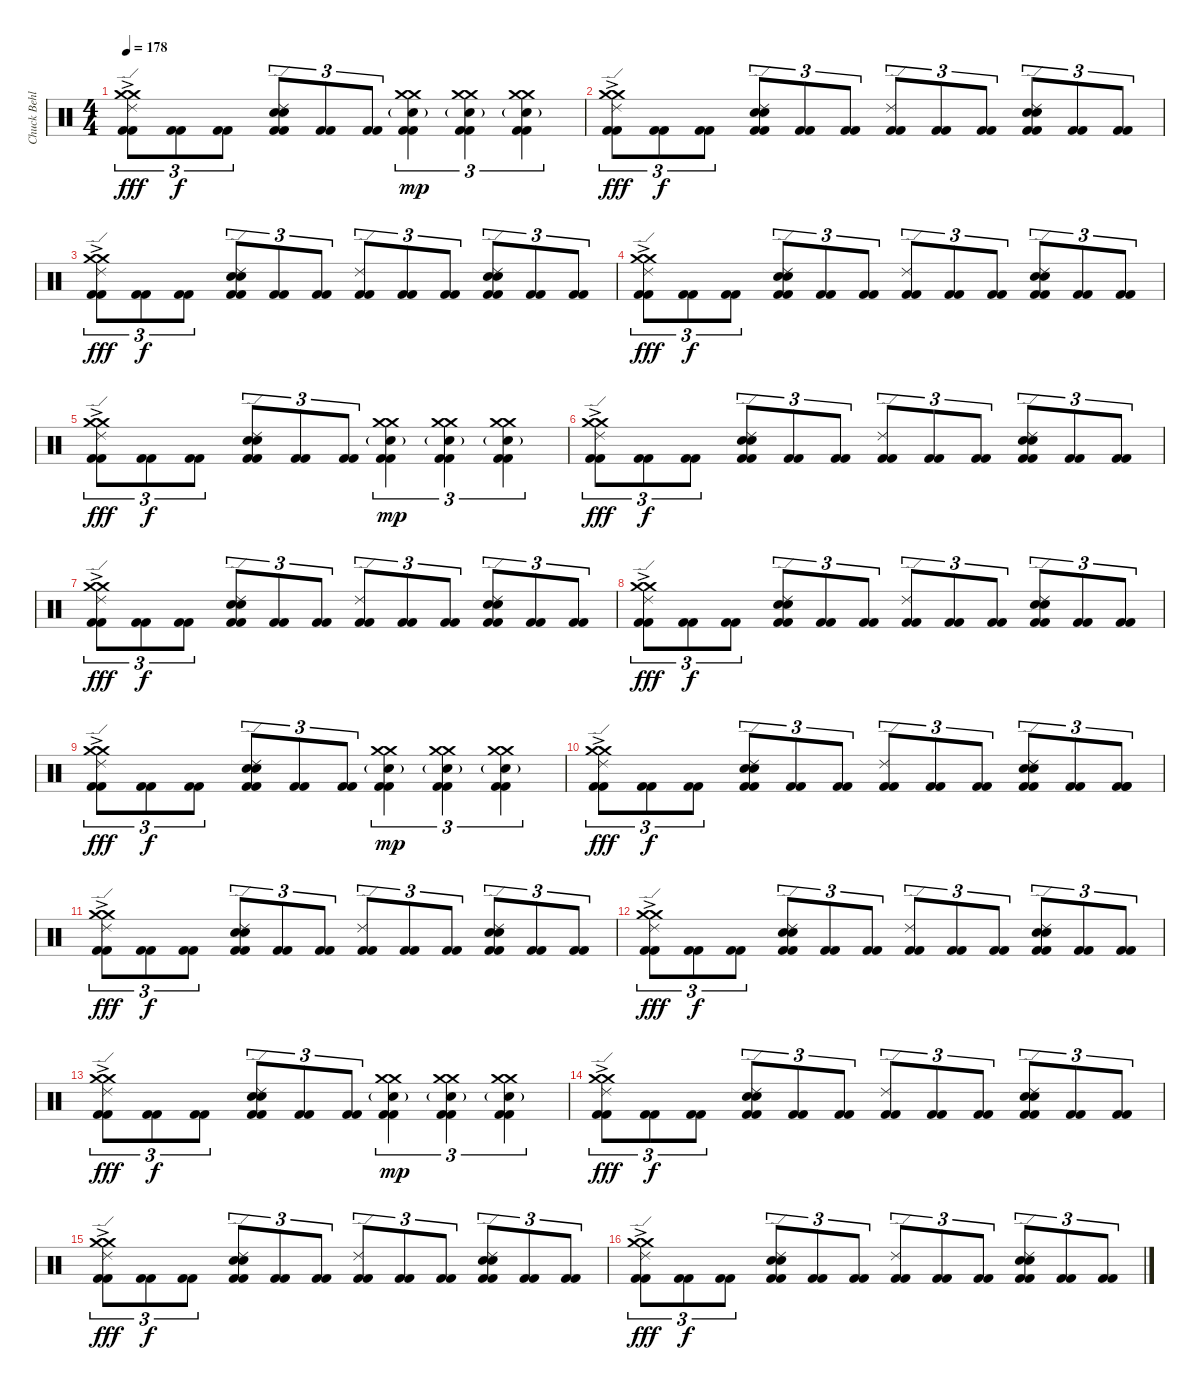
\track ("Chuck Behler" "Chuck Behl") {instrument percussion}
\staff {score}
\articulation defaults
\ts (4 4)
\tempo 178
\clef neutral
\ks c
("Crash medium (hit)"{ac} "Crash medium (hit)"{ac} "Ride (edge) 2" "Kick (hit) 2" "Kick (hit) 2").8{tu (3 2) dy fff} ("Kick (hit) 2" "Kick (hit) 2").8{tu (3 2) dy f} ("Kick (hit) 2" "Kick (hit) 2").8{tu (3 2)} ("Ride (edge) 2" "Snare (hit) 2" "Electric Snare (hit)" "Kick (hit) 2" "Kick (hit) 2").8{tu (3 2)} ("Kick (hit) 2" "Kick (hit) 2").8{tu (3 2)} ("Kick (hit) 2" "Kick (hit) 2").8{tu (3 2)} ("Crash medium (hit)" "Crash medium (hit)" "Snare (hit) 2"{g} "Kick (hit) 2" "Kick (hit) 2").4{tu (3 2) dy mp} ("Crash medium (hit)" "Crash medium (hit)" "Snare (hit) 2"{g} "Kick (hit) 2" "Kick (hit) 2").4{tu (3 2)} ("Crash medium (hit)" "Crash medium (hit)" "Snare (hit) 2"{g} "Kick (hit) 2" "Kick (hit) 2").4{tu (3 2)} |
("Crash medium (hit)"{ac} "Crash medium (hit)"{ac} "Ride (edge) 2" "Kick (hit) 2" "Kick (hit) 2").8{tu (3 2) dy fff} ("Kick (hit) 2" "Kick (hit) 2").8{tu (3 2) dy f} ("Kick (hit) 2" "Kick (hit) 2").8{tu (3 2)} ("Ride (edge) 2" "Snare (hit) 2" "Electric Snare (hit)" "Kick (hit) 2" "Kick (hit) 2").8{tu (3 2)} ("Kick (hit) 2" "Kick (hit) 2").8{tu (3 2)} ("Kick (hit) 2" "Kick (hit) 2").8{tu (3 2)} ("Ride (edge) 2" "Kick (hit) 2" "Kick (hit) 2").8{tu (3 2)} ("Kick (hit) 2" "Kick (hit) 2").8{tu (3 2)} ("Kick (hit) 2" "Kick (hit) 2").8{tu (3 2)} ("Ride (edge) 2" "Snare (hit) 2" "Electric Snare (hit)" "Kick (hit) 2" "Kick (hit) 2").8{tu (3 2)} ("Kick (hit) 2" "Kick (hit) 2").8{tu (3 2)} ("Kick (hit) 2" "Kick (hit) 2").8{tu (3 2)} |
("Crash medium (hit)"{ac} "Crash medium (hit)"{ac} "Ride (edge) 2" "Kick (hit) 2" "Kick (hit) 2").8{tu (3 2) dy fff} ("Kick (hit) 2" "Kick (hit) 2").8{tu (3 2) dy f} ("Kick (hit) 2" "Kick (hit) 2").8{tu (3 2)} ("Ride (edge) 2" "Snare (hit) 2" "Electric Snare (hit)" "Kick (hit) 2" "Kick (hit) 2").8{tu (3 2)} ("Kick (hit) 2" "Kick (hit) 2").8{tu (3 2)} ("Kick (hit) 2" "Kick (hit) 2").8{tu (3 2)} ("Ride (edge) 2" "Kick (hit) 2" "Kick (hit) 2").8{tu (3 2)} ("Kick (hit) 2" "Kick (hit) 2").8{tu (3 2)} ("Kick (hit) 2" "Kick (hit) 2").8{tu (3 2)} ("Ride (edge) 2" "Snare (hit) 2" "Electric Snare (hit)" "Kick (hit) 2" "Kick (hit) 2").8{tu (3 2)} ("Kick (hit) 2" "Kick (hit) 2").8{tu (3 2)} ("Kick (hit) 2" "Kick (hit) 2").8{tu (3 2)} |
("Crash medium (hit)"{ac} "Crash medium (hit)"{ac} "Ride (edge) 2" "Kick (hit) 2" "Kick (hit) 2").8{tu (3 2) dy fff} ("Kick (hit) 2" "Kick (hit) 2").8{tu (3 2) dy f} ("Kick (hit) 2" "Kick (hit) 2").8{tu (3 2)} ("Ride (edge) 2" "Snare (hit) 2" "Electric Snare (hit)" "Kick (hit) 2" "Kick (hit) 2").8{tu (3 2)} ("Kick (hit) 2" "Kick (hit) 2").8{tu (3 2)} ("Kick (hit) 2" "Kick (hit) 2").8{tu (3 2)} ("Ride (edge) 2" "Kick (hit) 2" "Kick (hit) 2").8{tu (3 2)} ("Kick (hit) 2" "Kick (hit) 2").8{tu (3 2)} ("Kick (hit) 2" "Kick (hit) 2").8{tu (3 2)} ("Ride (edge) 2" "Snare (hit) 2" "Electric Snare (hit)" "Kick (hit) 2" "Kick (hit) 2").8{tu (3 2)} ("Kick (hit) 2" "Kick (hit) 2").8{tu (3 2)} ("Kick (hit) 2" "Kick (hit) 2").8{tu (3 2)} |
("Crash medium (hit)"{ac} "Crash medium (hit)"{ac} "Ride (edge) 2" "Kick (hit) 2" "Kick (hit) 2").8{tu (3 2) dy fff} ("Kick (hit) 2" "Kick (hit) 2").8{tu (3 2) dy f} ("Kick (hit) 2" "Kick (hit) 2").8{tu (3 2)} ("Ride (edge) 2" "Snare (hit) 2" "Electric Snare (hit)" "Kick (hit) 2" "Kick (hit) 2").8{tu (3 2)} ("Kick (hit) 2" "Kick (hit) 2").8{tu (3 2)} ("Kick (hit) 2" "Kick (hit) 2").8{tu (3 2)} ("Crash medium (hit)" "Crash medium (hit)" "Snare (hit) 2"{g} "Kick (hit) 2" "Kick (hit) 2").4{tu (3 2) dy mp} ("Crash medium (hit)" "Crash medium (hit)" "Snare (hit) 2"{g} "Kick (hit) 2" "Kick (hit) 2").4{tu (3 2)} ("Crash medium (hit)" "Crash medium (hit)" "Snare (hit) 2"{g} "Kick (hit) 2" "Kick (hit) 2").4{tu (3 2)} |
("Crash medium (hit)"{ac} "Crash medium (hit)"{ac} "Ride (edge) 2" "Kick (hit) 2" "Kick (hit) 2").8{tu (3 2) dy fff} ("Kick (hit) 2" "Kick (hit) 2").8{tu (3 2) dy f} ("Kick (hit) 2" "Kick (hit) 2").8{tu (3 2)} ("Ride (edge) 2" "Snare (hit) 2" "Electric Snare (hit)" "Kick (hit) 2" "Kick (hit) 2").8{tu (3 2)} ("Kick (hit) 2" "Kick (hit) 2").8{tu (3 2)} ("Kick (hit) 2" "Kick (hit) 2").8{tu (3 2)} ("Ride (edge) 2" "Kick (hit) 2" "Kick (hit) 2").8{tu (3 2)} ("Kick (hit) 2" "Kick (hit) 2").8{tu (3 2)} ("Kick (hit) 2" "Kick (hit) 2").8{tu (3 2)} ("Ride (edge) 2" "Snare (hit) 2" "Electric Snare (hit)" "Kick (hit) 2" "Kick (hit) 2").8{tu (3 2)} ("Kick (hit) 2" "Kick (hit) 2").8{tu (3 2)} ("Kick (hit) 2" "Kick (hit) 2").8{tu (3 2)} |
("Crash medium (hit)"{ac} "Crash medium (hit)"{ac} "Ride (edge) 2" "Kick (hit) 2" "Kick (hit) 2").8{tu (3 2) dy fff} ("Kick (hit) 2" "Kick (hit) 2").8{tu (3 2) dy f} ("Kick (hit) 2" "Kick (hit) 2").8{tu (3 2)} ("Ride (edge) 2" "Snare (hit) 2" "Electric Snare (hit)" "Kick (hit) 2" "Kick (hit) 2").8{tu (3 2)} ("Kick (hit) 2" "Kick (hit) 2").8{tu (3 2)} ("Kick (hit) 2" "Kick (hit) 2").8{tu (3 2)} ("Ride (edge) 2" "Kick (hit) 2" "Kick (hit) 2").8{tu (3 2)} ("Kick (hit) 2" "Kick (hit) 2").8{tu (3 2)} ("Kick (hit) 2" "Kick (hit) 2").8{tu (3 2)} ("Ride (edge) 2" "Snare (hit) 2" "Electric Snare (hit)" "Kick (hit) 2" "Kick (hit) 2").8{tu (3 2)} ("Kick (hit) 2" "Kick (hit) 2").8{tu (3 2)} ("Kick (hit) 2" "Kick (hit) 2").8{tu (3 2)} |
("Crash medium (hit)"{ac} "Crash medium (hit)"{ac} "Ride (edge) 2" "Kick (hit) 2" "Kick (hit) 2").8{tu (3 2) dy fff} ("Kick (hit) 2" "Kick (hit) 2").8{tu (3 2) dy f} ("Kick (hit) 2" "Kick (hit) 2").8{tu (3 2)} ("Ride (edge) 2" "Snare (hit) 2" "Electric Snare (hit)" "Kick (hit) 2" "Kick (hit) 2").8{tu (3 2)} ("Kick (hit) 2" "Kick (hit) 2").8{tu (3 2)} ("Kick (hit) 2" "Kick (hit) 2").8{tu (3 2)} ("Ride (edge) 2" "Kick (hit) 2" "Kick (hit) 2").8{tu (3 2)} ("Kick (hit) 2" "Kick (hit) 2").8{tu (3 2)} ("Kick (hit) 2" "Kick (hit) 2").8{tu (3 2)} ("Ride (edge) 2" "Snare (hit) 2" "Electric Snare (hit)" "Kick (hit) 2" "Kick (hit) 2").8{tu (3 2)} ("Kick (hit) 2" "Kick (hit) 2").8{tu (3 2)} ("Kick (hit) 2" "Kick (hit) 2").8{tu (3 2)} |
("Crash medium (hit)"{ac} "Crash medium (hit)"{ac} "Ride (edge) 2" "Kick (hit) 2" "Kick (hit) 2").8{tu (3 2) dy fff} ("Kick (hit) 2" "Kick (hit) 2").8{tu (3 2) dy f} ("Kick (hit) 2" "Kick (hit) 2").8{tu (3 2)} ("Ride (edge) 2" "Snare (hit) 2" "Electric Snare (hit)" "Kick (hit) 2" "Kick (hit) 2").8{tu (3 2)} ("Kick (hit) 2" "Kick (hit) 2").8{tu (3 2)} ("Kick (hit) 2" "Kick (hit) 2").8{tu (3 2)} ("Crash medium (hit)" "Crash medium (hit)" "Snare (hit) 2"{g} "Kick (hit) 2" "Kick (hit) 2").4{tu (3 2) dy mp} ("Crash medium (hit)" "Crash medium (hit)" "Snare (hit) 2"{g} "Kick (hit) 2" "Kick (hit) 2").4{tu (3 2)} ("Crash medium (hit)" "Crash medium (hit)" "Snare (hit) 2"{g} "Kick (hit) 2" "Kick (hit) 2").4{tu (3 2)} |
("Crash medium (hit)"{ac} "Crash medium (hit)"{ac} "Ride (edge) 2" "Kick (hit) 2" "Kick (hit) 2").8{tu (3 2) dy fff} ("Kick (hit) 2" "Kick (hit) 2").8{tu (3 2) dy f} ("Kick (hit) 2" "Kick (hit) 2").8{tu (3 2)} ("Ride (edge) 2" "Snare (hit) 2" "Electric Snare (hit)" "Kick (hit) 2" "Kick (hit) 2").8{tu (3 2)} ("Kick (hit) 2" "Kick (hit) 2").8{tu (3 2)} ("Kick (hit) 2" "Kick (hit) 2").8{tu (3 2)} ("Ride (edge) 2" "Kick (hit) 2" "Kick (hit) 2").8{tu (3 2)} ("Kick (hit) 2" "Kick (hit) 2").8{tu (3 2)} ("Kick (hit) 2" "Kick (hit) 2").8{tu (3 2)} ("Ride (edge) 2" "Snare (hit) 2" "Electric Snare (hit)" "Kick (hit) 2" "Kick (hit) 2").8{tu (3 2)} ("Kick (hit) 2" "Kick (hit) 2").8{tu (3 2)} ("Kick (hit) 2" "Kick (hit) 2" "Kick (hit) 2").8{tu (3 2)} |
("Crash medium (hit)"{ac} "Crash medium (hit)"{ac} "Ride (edge) 2" "Kick (hit) 2" "Kick (hit) 2").8{tu (3 2) dy fff} ("Kick (hit) 2" "Kick (hit) 2").8{tu (3 2) dy f} ("Kick (hit) 2" "Kick (hit) 2").8{tu (3 2)} ("Ride (edge) 2" "Snare (hit) 2" "Electric Snare (hit)" "Kick (hit) 2" "Kick (hit) 2").8{tu (3 2)} ("Kick (hit) 2" "Kick (hit) 2").8{tu (3 2)} ("Kick (hit) 2" "Kick (hit) 2").8{tu (3 2)} ("Ride (edge) 2" "Kick (hit) 2" "Kick (hit) 2").8{tu (3 2)} ("Kick (hit) 2" "Kick (hit) 2").8{tu (3 2)} ("Kick (hit) 2" "Kick (hit) 2").8{tu (3 2)} ("Ride (edge) 2" "Snare (hit) 2" "Electric Snare (hit)" "Kick (hit) 2" "Kick (hit) 2").8{tu (3 2)} ("Kick (hit) 2" "Kick (hit) 2").8{tu (3 2)} ("Kick (hit) 2" "Kick (hit) 2").8{tu (3 2)} |
("Crash medium (hit)"{ac} "Crash medium (hit)"{ac} "Ride (edge) 2" "Kick (hit) 2" "Kick (hit) 2").8{tu (3 2) dy fff} ("Kick (hit) 2" "Kick (hit) 2").8{tu (3 2) dy f} ("Kick (hit) 2" "Kick (hit) 2").8{tu (3 2)} ("Ride (edge) 2" "Snare (hit) 2" "Electric Snare (hit)" "Kick (hit) 2" "Kick (hit) 2").8{tu (3 2)} ("Kick (hit) 2" "Kick (hit) 2").8{tu (3 2)} ("Kick (hit) 2" "Kick (hit) 2").8{tu (3 2)} ("Ride (edge) 2" "Kick (hit) 2" "Kick (hit) 2").8{tu (3 2)} ("Kick (hit) 2" "Kick (hit) 2").8{tu (3 2)} ("Kick (hit) 2" "Kick (hit) 2").8{tu (3 2)} ("Ride (edge) 2" "Snare (hit) 2" "Electric Snare (hit)" "Kick (hit) 2" "Kick (hit) 2").8{tu (3 2)} ("Kick (hit) 2" "Kick (hit) 2").8{tu (3 2)} ("Kick (hit) 2" "Kick (hit) 2").8{tu (3 2)} |
("Crash medium (hit)"{ac} "Crash medium (hit)"{ac} "Ride (edge) 2" "Kick (hit) 2" "Kick (hit) 2").8{tu (3 2) dy fff} ("Kick (hit) 2" "Kick (hit) 2").8{tu (3 2) dy f} ("Kick (hit) 2" "Kick (hit) 2").8{tu (3 2)} ("Ride (edge) 2" "Snare (hit) 2" "Electric Snare (hit)" "Kick (hit) 2" "Kick (hit) 2").8{tu (3 2)} ("Kick (hit) 2" "Kick (hit) 2").8{tu (3 2)} ("Kick (hit) 2" "Kick (hit) 2").8{tu (3 2)} ("Crash medium (hit)" "Crash medium (hit)" "Snare (hit) 2"{g} "Kick (hit) 2" "Kick (hit) 2").4{tu (3 2) dy mp} ("Crash medium (hit)" "Crash medium (hit)" "Snare (hit) 2"{g} "Kick (hit) 2" "Kick (hit) 2").4{tu (3 2)} ("Crash medium (hit)" "Crash medium (hit)" "Snare (hit) 2"{g} "Kick (hit) 2" "Kick (hit) 2").4{tu (3 2)} |
("Crash medium (hit)"{ac} "Crash medium (hit)"{ac} "Ride (edge) 2" "Kick (hit) 2" "Kick (hit) 2").8{tu (3 2) dy fff} ("Kick (hit) 2" "Kick (hit) 2").8{tu (3 2) dy f} ("Kick (hit) 2" "Kick (hit) 2").8{tu (3 2)} ("Ride (edge) 2" "Snare (hit) 2" "Electric Snare (hit)" "Kick (hit) 2" "Kick (hit) 2").8{tu (3 2)} ("Kick (hit) 2" "Kick (hit) 2").8{tu (3 2)} ("Kick (hit) 2" "Kick (hit) 2").8{tu (3 2)} ("Ride (edge) 2" "Kick (hit) 2" "Kick (hit) 2").8{tu (3 2)} ("Kick (hit) 2" "Kick (hit) 2").8{tu (3 2)} ("Kick (hit) 2" "Kick (hit) 2").8{tu (3 2)} ("Ride (edge) 2" "Snare (hit) 2" "Electric Snare (hit)" "Kick (hit) 2" "Kick (hit) 2").8{tu (3 2)} ("Kick (hit) 2" "Kick (hit) 2").8{tu (3 2)} ("Kick (hit) 2" "Kick (hit) 2").8{tu (3 2)} |
("Crash medium (hit)"{ac} "Crash medium (hit)"{ac} "Ride (edge) 2" "Kick (hit) 2" "Kick (hit) 2").8{tu (3 2) dy fff} ("Kick (hit) 2" "Kick (hit) 2").8{tu (3 2) dy f} ("Kick (hit) 2" "Kick (hit) 2").8{tu (3 2)} ("Ride (edge) 2" "Snare (hit) 2" "Electric Snare (hit)" "Kick (hit) 2" "Kick (hit) 2").8{tu (3 2)} ("Kick (hit) 2" "Kick (hit) 2").8{tu (3 2)} ("Kick (hit) 2" "Kick (hit) 2").8{tu (3 2)} ("Ride (edge) 2" "Kick (hit) 2" "Kick (hit) 2").8{tu (3 2)} ("Kick (hit) 2" "Kick (hit) 2").8{tu (3 2)} ("Kick (hit) 2" "Kick (hit) 2").8{tu (3 2)} ("Ride (edge) 2" "Snare (hit) 2" "Electric Snare (hit)" "Kick (hit) 2" "Kick (hit) 2").8{tu (3 2)} ("Kick (hit) 2" "Kick (hit) 2").8{tu (3 2)} ("Kick (hit) 2" "Kick (hit) 2").8{tu (3 2)} |
("Crash medium (hit)"{ac} "Crash medium (hit)"{ac} "Ride (edge) 2" "Kick (hit) 2" "Kick (hit) 2").8{tu (3 2) dy fff} ("Kick (hit) 2" "Kick (hit) 2").8{tu (3 2) dy f} ("Kick (hit) 2" "Kick (hit) 2").8{tu (3 2)} ("Ride (edge) 2" "Snare (hit) 2" "Electric Snare (hit)" "Kick (hit) 2" "Kick (hit) 2").8{tu (3 2)} ("Kick (hit) 2" "Kick (hit) 2").8{tu (3 2)} ("Kick (hit) 2" "Kick (hit) 2").8{tu (3 2)} ("Ride (edge) 2" "Kick (hit) 2" "Kick (hit) 2").8{tu (3 2)} ("Kick (hit) 2" "Kick (hit) 2").8{tu (3 2)} ("Kick (hit) 2" "Kick (hit) 2").8{tu (3 2)} ("Ride (edge) 2" "Snare (hit) 2" "Electric Snare (hit)" "Kick (hit) 2" "Kick (hit) 2").8{tu (3 2)} ("Kick (hit) 2" "Kick (hit) 2").8{tu (3 2)} ("Kick (hit) 2" "Kick (hit) 2").8{tu (3 2)}
